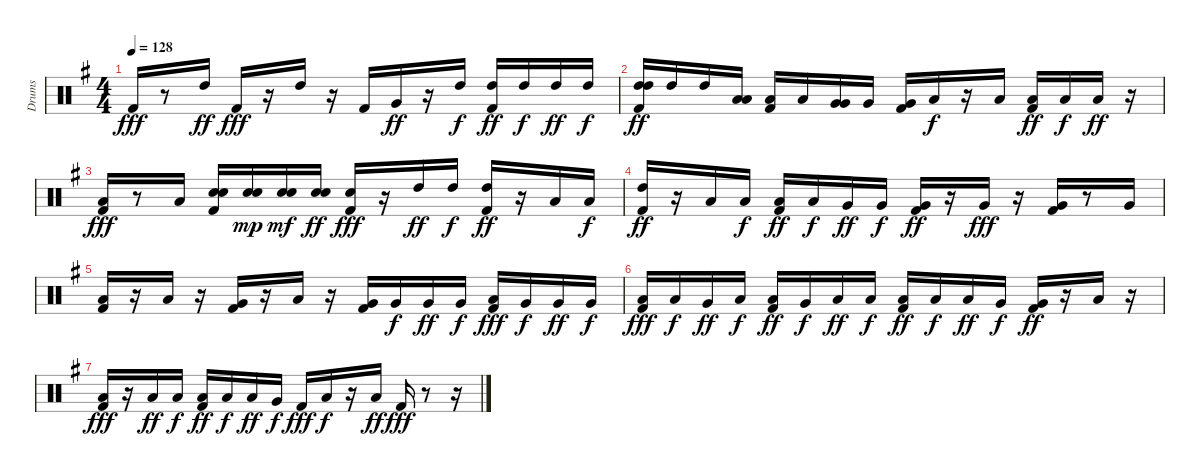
\track ("Drums" "Drums") {instrument percussion}
\staff {score}
\articulation defaults
\ts (4 4)
\tempo 128
\clef neutral
\ks eminor "Kick (hit) 2".16{dy fff}
r.8 "High Tom (hit)".16{dy ff} "Kick (hit) 2".16{dy fff} r.16 "High Tom (hit)".16 r.16 "Kick (hit) 2".16 "Very Low Tom (hit)".16{dy ff} r.16 "High Tom (hit)".16{dy f} ("Kick (hit) 2" "High Tom (hit)").16{dy ff} "High Tom (hit)".16{dy f} "High Tom (hit)".16{dy ff} "High Tom (hit)".16{dy f} |
("Kick (hit) 2" "High Tom (hit)" "High Tom (hit)").16{dy ff} "High Tom (hit)".16 "High Tom (hit)".16 ("Low Tom (hit)" "Low Tom (hit)").16 ("Kick (hit) 2" "Low Tom (hit)").16 "Low Tom (hit)".16 ("Very Low Tom (hit)" "Very Low Tom (hit)").16 "Very Low Tom (hit)".16 ("Kick (hit) 2" "Very Low Tom (hit)").16 "Low Floor Tom (hit)".16{dy f} r.16 "Low Floor Tom (hit)".16 ("Kick (hit) 2" "Low Floor Tom (hit)").16{dy ff} "Low Floor Tom (hit)".16{dy f} "Low Floor Tom (hit)".16{dy ff} r.16 |
("Low Floor Tom (hit)" "Kick (hit) 2").16{dy fff} r.8 "Low Floor Tom (hit)".16 ("Kick (hit) 2" "Electric Snare (hit)" "Electric Snare (hit)").16 ("Electric Snare (hit)" "Electric Snare (hit)").16{dy mp} ("Electric Snare (hit)" "Electric Snare (hit)").16{dy mf} ("Electric Snare (hit)" "Electric Snare (hit)").16{dy ff} ("Kick (hit) 2" "Electric Snare (hit)").16{dy fff} r.16 "High Tom (hit)".16{dy ff} "High Tom (hit)".16{dy f} ("Kick (hit) 2" "High Tom (hit)").16{dy ff} r.16 "Low Tom (hit)".16 "Low Tom (hit)".16{dy f} |
("Kick (hit) 2" "High Tom (hit)").16{dy ff} r.16 "Low Tom (hit)".16 "Low Tom (hit)".16{dy f} ("Kick (hit) 2" "Low Tom (hit)").16{dy ff} "Low Tom (hit)".16{dy f} "Very Low Tom (hit)".16{dy ff} "Very Low Tom (hit)".16{dy f} ("Kick (hit) 2" "Very Low Tom (hit)").16{dy ff} r.16 "Very Low Tom (hit)".16{dy fff} r.16 ("Kick (hit) 2" "Very Low Tom (hit)").16 r.8 "Very Low Tom (hit)".16 |
("Kick (hit) 2" "Low Floor Tom (hit)").16 r.16 "Low Floor Tom (hit)".16 r.16 ("Kick (hit) 2" "Very Low Tom (hit)").16 r.16 "Low Floor Tom (hit)".16 r.16 ("Kick (hit) 2" "Very Low Tom (hit)").16 "Very Low Tom (hit)".16{dy f} "Very Low Tom (hit)".16{dy ff} "Very Low Tom (hit)".16{dy f} ("Kick (hit) 2" "Low Floor Tom (hit)").16{dy fff} "Very Low Tom (hit)".16{dy f} "Very Low Tom (hit)".16{dy ff} "Very Low Tom (hit)".16{dy f} |
("Kick (hit) 2" "Low Floor Tom (hit)").16{dy fff} "Low Floor Tom (hit)".16{dy f} "Very Low Tom (hit)".16{dy ff} "Low Floor Tom (hit)".16{dy f} ("Kick (hit) 2" "Low Floor Tom (hit)").16{dy ff} "Very Low Tom (hit)".16{dy f} "Low Floor Tom (hit)".16{dy ff} "Low Floor Tom (hit)".16{dy f} ("Kick (hit) 2" "Low Floor Tom (hit)").16{dy ff} "Low Floor Tom (hit)".16{dy f} "Low Floor Tom (hit)".16{dy ff} "Very Low Tom (hit)".16{dy f} ("Kick (hit) 2" "Very Low Tom (hit)").16{dy ff} r.16 "Low Floor Tom (hit)".16 r.16 |
("Kick (hit) 2" "Low Floor Tom (hit)").16{dy fff} r.16 "Low Floor Tom (hit)".16{dy ff} "Low Floor Tom (hit)".16{dy f} ("Kick (hit) 2" "Low Floor Tom (hit)").16{dy ff} "Low Floor Tom (hit)".16{dy f} "Low Floor Tom (hit)".16{dy ff} "Very Low Tom (hit)".16{dy f} "Kick (hit) 2".16{dy fff} "Low Floor Tom (hit)".16{dy f} r.16 "Low Floor Tom (hit)".16{dy ff} "Kick (hit) 2".16{dy fff} r.8 r.16
